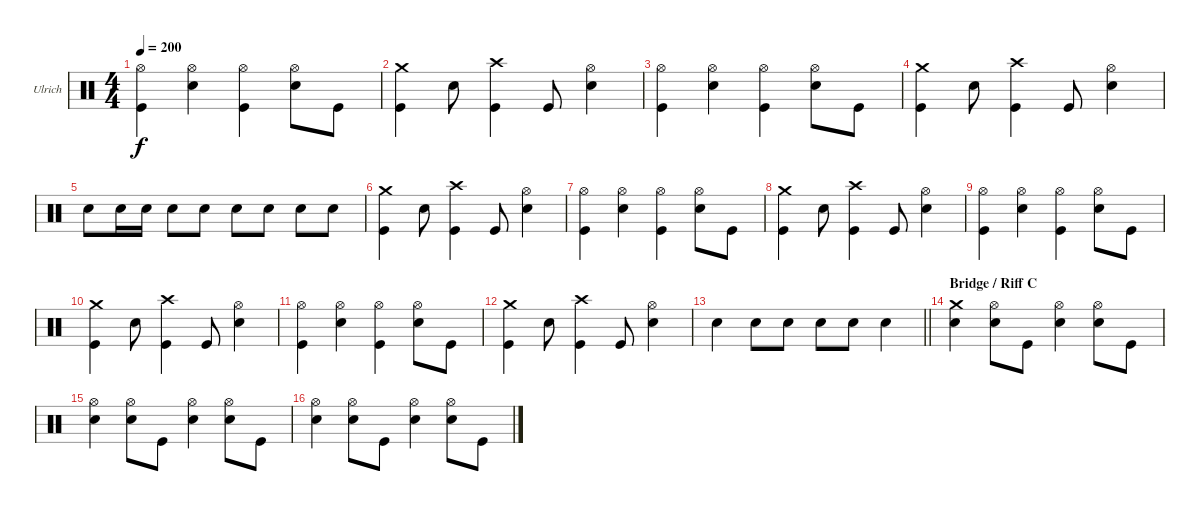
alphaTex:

\bracketExtendMode groupsimilarinstruments
\firstSystemTrackNameOrientation horizontal
\otherSystemsTrackNameOrientation horizontal
\track ("Drumkit" "Ulrich") {instrument percussion}
\staff {score}
\articulation defaults
\ts (4 4)
\tempo 200
\clef neutral
\ks c
("Hi-Hat (open)" "Kick (hit)").4{dy f} ("Hi-Hat (open)" "Snare (hit) 2").4 ("Hi-Hat (open)" "Kick (hit)").4 ("Hi-Hat (open)" "Snare (hit) 2").8 "Kick (hit)".8 |
("Crash medium (hit)" "Kick (hit)").4 "Snare (hit) 2".8 ("Crash high (hit)" "Kick (hit)").4 "Kick (hit)".8 ("Hi-Hat (open)" "Snare (hit) 2").4 |
("Hi-Hat (open)" "Kick (hit)").4 ("Hi-Hat (open)" "Snare (hit) 2").4 ("Hi-Hat (open)" "Kick (hit)").4 ("Hi-Hat (open)" "Snare (hit) 2").8 "Kick (hit)".8 |
("Crash medium (hit)" "Kick (hit)").4 "Snare (hit) 2".8 ("Crash high (hit)" "Kick (hit)").4 "Kick (hit)".8 ("Hi-Hat (open)" "Snare (hit) 2").4 |
"Snare (hit) 2".8 "Snare (hit) 2".16 "Snare (hit) 2".16 "Snare (hit) 2".8 "Snare (hit) 2".8 "Snare (hit) 2".8 "Snare (hit) 2".8 "Snare (hit) 2".8 "Snare (hit) 2".8 |
("Crash medium (hit)" "Kick (hit)").4 "Snare (hit) 2".8 ("Crash high (hit)" "Kick (hit)").4 "Kick (hit)".8 ("Hi-Hat (open)" "Snare (hit) 2").4 |
("Hi-Hat (open)" "Kick (hit)").4 ("Hi-Hat (open)" "Snare (hit) 2").4 ("Hi-Hat (open)" "Kick (hit)").4 ("Hi-Hat (open)" "Snare (hit) 2").8 "Kick (hit)".8 |
("Crash medium (hit)" "Kick (hit)").4 "Snare (hit) 2".8 ("Crash high (hit)" "Kick (hit)").4 "Kick (hit)".8 ("Hi-Hat (open)" "Snare (hit) 2").4 |
("Hi-Hat (open)" "Kick (hit)").4 ("Hi-Hat (open)" "Snare (hit) 2").4 ("Hi-Hat (open)" "Kick (hit)").4 ("Hi-Hat (open)" "Snare (hit) 2").8 "Kick (hit)".8 |
("Crash medium (hit)" "Kick (hit)").4 "Snare (hit) 2".8 ("Crash high (hit)" "Kick (hit)").4 "Kick (hit)".8 ("Hi-Hat (open)" "Snare (hit) 2").4 |
("Hi-Hat (open)" "Kick (hit)").4 ("Hi-Hat (open)" "Snare (hit) 2").4 ("Hi-Hat (open)" "Kick (hit)").4 ("Hi-Hat (open)" "Snare (hit) 2").8 "Kick (hit)".8 |
("Crash medium (hit)" "Kick (hit)").4 "Snare (hit) 2".8 ("Crash high (hit)" "Kick (hit)").4 "Kick (hit)".8 ("Hi-Hat (open)" "Snare (hit) 2").4 |
\barLineRight lightlight "Snare (hit) 2".4 "Snare (hit) 2".8 "Snare (hit) 2".8 "Snare (hit) 2".8 "Snare (hit) 2".8 "Snare (hit) 2".4
|
\section ("" "Bridge / Riff C")
("Crash medium (hit)" "Snare (hit) 2").4 ("Hi-Hat (open)" "Snare (hit) 2").8 "Kick (hit)".8 ("Hi-Hat (open)" "Snare (hit) 2").4 ("Hi-Hat (open)" "Snare (hit) 2").8 "Kick (hit)".8 |
("Hi-Hat (open)" "Snare (hit) 2").4 ("Hi-Hat (open)" "Snare (hit) 2").8 "Kick (hit)".8 ("Hi-Hat (open)" "Snare (hit) 2").4 ("Hi-Hat (open)" "Snare (hit) 2").8 "Kick (hit)".8 |
("Hi-Hat (open)" "Snare (hit) 2").4 ("Hi-Hat (open)" "Snare (hit) 2").8 "Kick (hit)".8 ("Hi-Hat (open)" "Snare (hit) 2").4 ("Hi-Hat (open)" "Snare (hit) 2").8 "Kick (hit)".8
